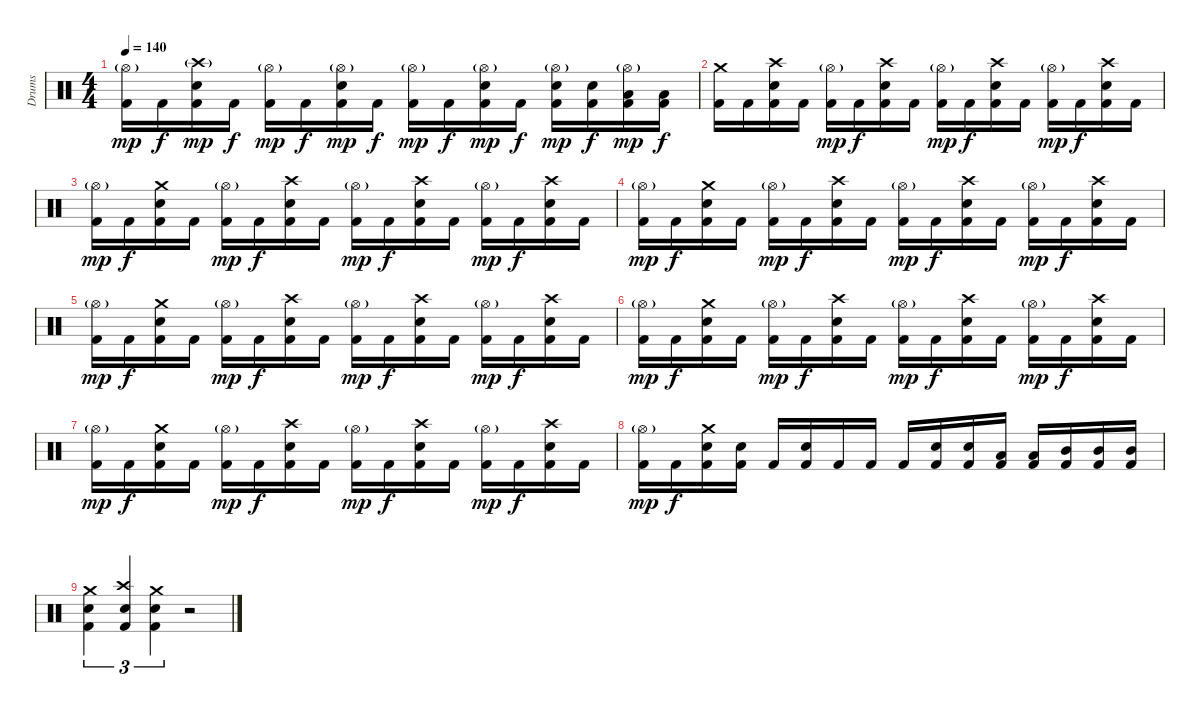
\track ("Drums" "Drums") {instrument percussion}
\staff {score}
\articulation defaults
\ts (4 4)
\tempo 140
\clef neutral
\ks c
("Hi-Hat (open)"{g} "Kick (hit) 2").16{dy mp} "Kick (hit) 2".16{dy f} ("Crash high (hit)"{g} "Electric Snare (hit)" "Kick (hit) 2").16{dy mp} "Kick (hit) 2".16{dy f} ("Hi-Hat (open)"{g} "Kick (hit) 2").16{dy mp} "Kick (hit) 2".16{dy f} ("Hi-Hat (open)"{g} "Electric Snare (hit)" "Kick (hit) 2").16{dy mp} "Kick (hit) 2".16{dy f} ("Hi-Hat (open)"{g} "Kick (hit) 2").16{dy mp} "Kick (hit) 2".16{dy f} ("Hi-Hat (open)"{g} "Electric Snare (hit)" "Kick (hit) 2").16{dy mp} "Kick (hit) 2".16{dy f} ("Hi-Hat (open)"{g} "Electric Snare (hit)" "Kick (hit) 2").16{dy mp} ("Electric Snare (hit)" "Kick (hit) 2").16{dy f} ("Hi-Hat (open)"{g} "Low Tom (hit)" "Kick (hit) 2").16{dy mp} ("Low Tom (hit)" "Kick (hit) 2").16{dy f} |
("Crash medium (hit)" "Kick (hit) 2").16 "Kick (hit) 2".16 ("Crash high (hit)" "Electric Snare (hit)" "Kick (hit) 2").16 "Kick (hit) 2".16 ("Hi-Hat (open)"{g} "Kick (hit) 2").16{dy mp} "Kick (hit) 2".16{dy f} ("Crash high (hit)" "Electric Snare (hit)" "Kick (hit) 2").16 "Kick (hit) 2".16 ("Hi-Hat (open)"{g} "Kick (hit) 2").16{dy mp} "Kick (hit) 2".16{dy f} ("Crash high (hit)" "Electric Snare (hit)" "Kick (hit) 2").16 "Kick (hit) 2".16 ("Hi-Hat (open)"{g} "Kick (hit) 2").16{dy mp} "Kick (hit) 2".16{dy f} ("Crash high (hit)" "Electric Snare (hit)" "Kick (hit) 2").16 "Kick (hit) 2".16 |
("Hi-Hat (open)"{g} "Kick (hit) 2").16{dy mp} "Kick (hit) 2".16{dy f} ("Crash medium (hit)" "Electric Snare (hit)" "Kick (hit) 2").16 "Kick (hit) 2".16 ("Hi-Hat (open)"{g} "Kick (hit) 2").16{dy mp} "Kick (hit) 2".16{dy f} ("Crash high (hit)" "Electric Snare (hit)" "Kick (hit) 2").16 "Kick (hit) 2".16 ("Hi-Hat (open)"{g} "Kick (hit) 2").16{dy mp} "Kick (hit) 2".16{dy f} ("Crash high (hit)" "Electric Snare (hit)" "Kick (hit) 2").16 "Kick (hit) 2".16 ("Hi-Hat (open)"{g} "Kick (hit) 2").16{dy mp} "Kick (hit) 2".16{dy f} ("Crash high (hit)" "Electric Snare (hit)" "Kick (hit) 2").16 "Kick (hit) 2".16 |
("Hi-Hat (open)"{g} "Kick (hit) 2").16{dy mp} "Kick (hit) 2".16{dy f} ("Crash medium (hit)" "Electric Snare (hit)" "Kick (hit) 2").16 "Kick (hit) 2".16 ("Hi-Hat (open)"{g} "Kick (hit) 2").16{dy mp} "Kick (hit) 2".16{dy f} ("Crash high (hit)" "Electric Snare (hit)" "Kick (hit) 2").16 "Kick (hit) 2".16 ("Hi-Hat (open)"{g} "Kick (hit) 2").16{dy mp} "Kick (hit) 2".16{dy f} ("Crash high (hit)" "Electric Snare (hit)" "Kick (hit) 2").16 "Kick (hit) 2".16 ("Hi-Hat (open)"{g} "Kick (hit) 2").16{dy mp} "Kick (hit) 2".16{dy f} ("Crash high (hit)" "Electric Snare (hit)" "Kick (hit) 2").16 "Kick (hit) 2".16 |
("Hi-Hat (open)"{g} "Kick (hit) 2").16{dy mp} "Kick (hit) 2".16{dy f} ("Crash medium (hit)" "Electric Snare (hit)" "Kick (hit) 2").16 "Kick (hit) 2".16 ("Hi-Hat (open)"{g} "Kick (hit) 2").16{dy mp} "Kick (hit) 2".16{dy f} ("Crash high (hit)" "Electric Snare (hit)" "Kick (hit) 2").16 "Kick (hit) 2".16 ("Hi-Hat (open)"{g} "Kick (hit) 2").16{dy mp} "Kick (hit) 2".16{dy f} ("Crash high (hit)" "Electric Snare (hit)" "Kick (hit) 2").16 "Kick (hit) 2".16 ("Hi-Hat (open)"{g} "Kick (hit) 2").16{dy mp} "Kick (hit) 2".16{dy f} ("Crash high (hit)" "Electric Snare (hit)" "Kick (hit) 2").16 "Kick (hit) 2".16 |
("Hi-Hat (open)"{g} "Kick (hit) 2").16{dy mp} "Kick (hit) 2".16{dy f} ("Crash medium (hit)" "Electric Snare (hit)" "Kick (hit) 2").16 "Kick (hit) 2".16 ("Hi-Hat (open)"{g} "Kick (hit) 2").16{dy mp} "Kick (hit) 2".16{dy f} ("Crash high (hit)" "Electric Snare (hit)" "Kick (hit) 2").16 "Kick (hit) 2".16 ("Hi-Hat (open)"{g} "Kick (hit) 2").16{dy mp} "Kick (hit) 2".16{dy f} ("Crash high (hit)" "Electric Snare (hit)" "Kick (hit) 2").16 "Kick (hit) 2".16 ("Hi-Hat (open)"{g} "Kick (hit) 2").16{dy mp} "Kick (hit) 2".16{dy f} ("Crash high (hit)" "Electric Snare (hit)" "Kick (hit) 2").16 "Kick (hit) 2".16 |
("Hi-Hat (open)"{g} "Kick (hit) 2").16{dy mp} "Kick (hit) 2".16{dy f} ("Crash medium (hit)" "Electric Snare (hit)" "Kick (hit) 2").16 "Kick (hit) 2".16 ("Hi-Hat (open)"{g} "Kick (hit) 2").16{dy mp} "Kick (hit) 2".16{dy f} ("Crash high (hit)" "Electric Snare (hit)" "Kick (hit) 2").16 "Kick (hit) 2".16 ("Hi-Hat (open)"{g} "Kick (hit) 2").16{dy mp} "Kick (hit) 2".16{dy f} ("Crash high (hit)" "Electric Snare (hit)" "Kick (hit) 2").16 "Kick (hit) 2".16 ("Hi-Hat (open)"{g} "Kick (hit) 2").16{dy mp} "Kick (hit) 2".16{dy f} ("Crash high (hit)" "Electric Snare (hit)" "Kick (hit) 2").16 "Kick (hit) 2".16 |
("Hi-Hat (open)"{g} "Kick (hit) 2").16{dy mp} "Kick (hit) 2".16{dy f} ("Crash medium (hit)" "Electric Snare (hit)" "Kick (hit) 2").16 ("Electric Snare (hit)" "Kick (hit) 2").16 "Kick (hit) 2".16 ("Electric Snare (hit)" "Kick (hit) 2").16 "Kick (hit) 2".16 "Kick (hit) 2".16 "Kick (hit) 2".16 ("Electric Snare (hit)" "Kick (hit) 2").16 ("Electric Snare (hit)" "Kick (hit) 2").16 ("Low Tom (hit)" "Kick (hit) 2").16 ("Low Tom (hit)" "Kick (hit) 2").16 ("Mid Tom (hit)" "Kick (hit) 2").16 ("Mid Tom (hit)" "Kick (hit) 2").16 ("Mid Tom (hit)" "Kick (hit) 2").16 |
("Crash medium (hit)" "Electric Snare (hit)" "Kick (hit) 2").4{tu (3 2)} ("Crash high (hit)" "Electric Snare (hit)" "Kick (hit) 2").4{tu (3 2)} ("Crash medium (hit)" "Electric Snare (hit)" "Kick (hit) 2").4{tu (3 2)} r.2
